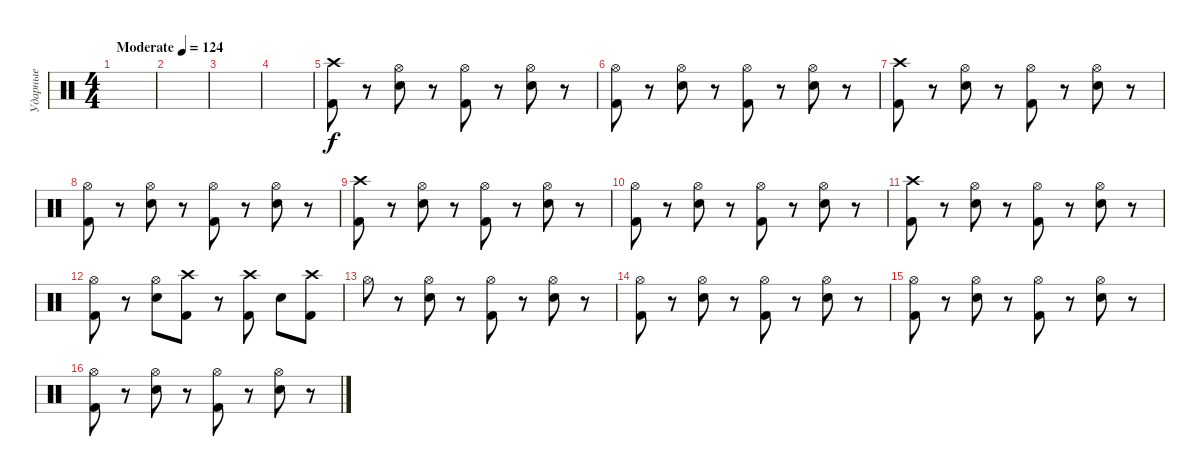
\track ("Ударные" "Ударные") {instrument percussion}
\staff {score}
\articulation defaults
\ts (4 4)
\tempo (124 "Moderate")
\clef neutral
\ks c
|
|
|
|
("Crash high (hit)" "Kick (hit) 2").8 r.8 ("Hi-Hat (open)" "Electric Snare (hit)").8 r.8 ("Hi-Hat (open)" "Kick (hit) 2").8 r.8 ("Hi-Hat (open)" "Electric Snare (hit)").8 r.8 |
("Hi-Hat (open)" "Kick (hit) 2").8 r.8 ("Hi-Hat (open)" "Electric Snare (hit)").8 r.8 ("Hi-Hat (open)" "Kick (hit) 2").8 r.8 ("Hi-Hat (open)" "Electric Snare (hit)").8 r.8 |
("Crash high (hit)" "Kick (hit) 2").8 r.8 ("Hi-Hat (open)" "Electric Snare (hit)").8 r.8 ("Hi-Hat (open)" "Kick (hit) 2").8 r.8 ("Hi-Hat (open)" "Electric Snare (hit)").8 r.8 |
("Hi-Hat (open)" "Kick (hit) 2").8 r.8 ("Hi-Hat (open)" "Electric Snare (hit)").8 r.8 ("Hi-Hat (open)" "Kick (hit) 2").8 r.8 ("Hi-Hat (open)" "Electric Snare (hit)").8 r.8 |
("Crash high (hit)" "Kick (hit) 2").8 r.8 ("Hi-Hat (open)" "Electric Snare (hit)").8 r.8 ("Hi-Hat (open)" "Kick (hit) 2").8 r.8 ("Hi-Hat (open)" "Electric Snare (hit)").8 r.8 |
("Hi-Hat (open)" "Kick (hit) 2").8 r.8 ("Hi-Hat (open)" "Electric Snare (hit)").8 r.8 ("Hi-Hat (open)" "Kick (hit) 2").8 r.8 ("Hi-Hat (open)" "Electric Snare (hit)").8 r.8 |
("Crash high (hit)" "Kick (hit) 2").8 r.8 ("Hi-Hat (open)" "Electric Snare (hit)").8 r.8 ("Hi-Hat (open)" "Kick (hit) 2").8 r.8 ("Hi-Hat (open)" "Electric Snare (hit)").8 r.8 |
("Hi-Hat (open)" "Kick (hit) 2").8 r.8 ("Hi-Hat (open)" "Electric Snare (hit)").8 ("Crash high (hit)" "Kick (hit) 2").8 r.8 ("Crash high (hit)" "Kick (hit) 2").8 "Electric Snare (hit)".8 ("Crash high (hit)" "Kick (hit) 2").8 |
"Hi-Hat (open)".8 r.8 ("Hi-Hat (open)" "Electric Snare (hit)").8 r.8 ("Hi-Hat (open)" "Kick (hit) 2").8 r.8 ("Hi-Hat (open)" "Electric Snare (hit)").8 r.8 |
("Hi-Hat (open)" "Kick (hit) 2").8 r.8 ("Hi-Hat (open)" "Electric Snare (hit)").8 r.8 ("Hi-Hat (open)" "Kick (hit) 2").8 r.8 ("Hi-Hat (open)" "Electric Snare (hit)").8 r.8 |
("Hi-Hat (open)" "Kick (hit) 2").8 r.8 ("Hi-Hat (open)" "Electric Snare (hit)").8 r.8 ("Hi-Hat (open)" "Kick (hit) 2").8 r.8 ("Hi-Hat (open)" "Electric Snare (hit)").8 r.8 |
("Hi-Hat (open)" "Kick (hit) 2").8 r.8 ("Hi-Hat (open)" "Electric Snare (hit)").8 r.8 ("Hi-Hat (open)" "Kick (hit) 2").8 r.8 ("Hi-Hat (open)" "Electric Snare (hit)").8 r.8
